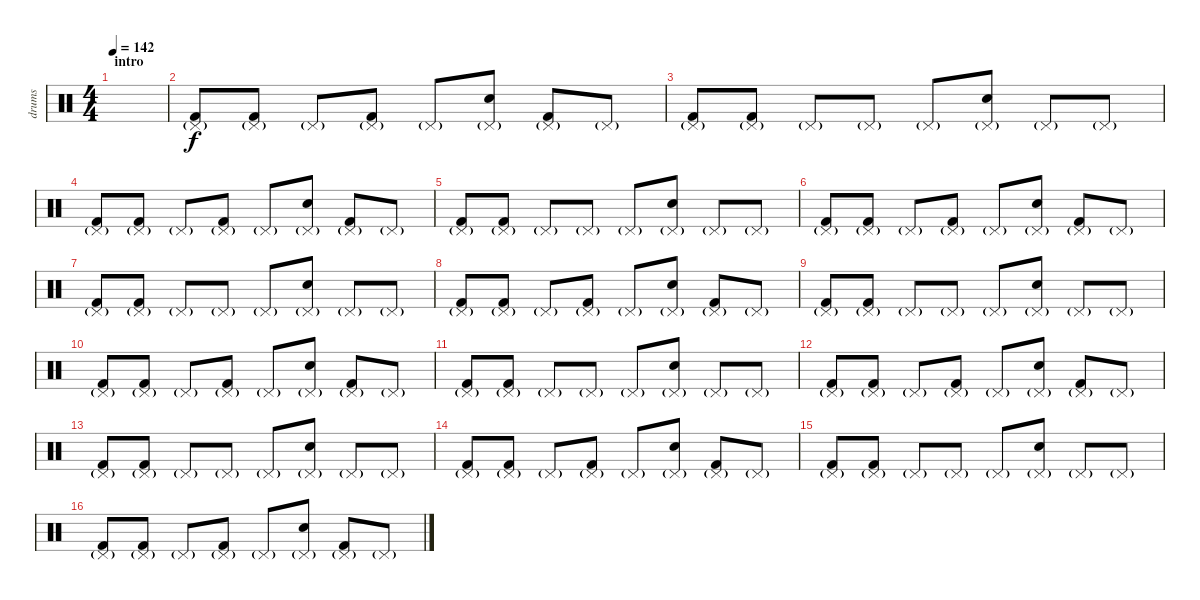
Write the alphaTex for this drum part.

\track ("drums" "drums") {instrument percussion}
\staff {score}
\articulation defaults
\ts (4 4)
\section ("" "intro")
\tempo 142
\clef neutral
\ks c
|
("Kick (hit) 2" "Pedal Hi-Hat (hit)"{g}).8 ("Kick (hit) 2" "Pedal Hi-Hat (hit)"{g}).8 "Pedal Hi-Hat (hit)"{g}.8 ("Kick (hit) 2" "Pedal Hi-Hat (hit)"{g}).8 "Pedal Hi-Hat (hit)"{g}.8 ("Snare (hit) 2" "Pedal Hi-Hat (hit)"{g}).8 ("Kick (hit) 2" "Pedal Hi-Hat (hit)"{g}).8 "Pedal Hi-Hat (hit)"{g}.8 |
("Kick (hit) 2" "Pedal Hi-Hat (hit)"{g}).8 ("Kick (hit) 2" "Pedal Hi-Hat (hit)"{g}).8 "Pedal Hi-Hat (hit)"{g}.8 "Pedal Hi-Hat (hit)"{g}.8 "Pedal Hi-Hat (hit)"{g}.8 ("Snare (hit) 2" "Pedal Hi-Hat (hit)"{g}).8 "Pedal Hi-Hat (hit)"{g}.8 "Pedal Hi-Hat (hit)"{g}.8 |
("Kick (hit) 2" "Pedal Hi-Hat (hit)"{g}).8 ("Kick (hit) 2" "Pedal Hi-Hat (hit)"{g}).8 "Pedal Hi-Hat (hit)"{g}.8 ("Kick (hit) 2" "Pedal Hi-Hat (hit)"{g}).8 "Pedal Hi-Hat (hit)"{g}.8 ("Snare (hit) 2" "Pedal Hi-Hat (hit)"{g}).8 ("Kick (hit) 2" "Pedal Hi-Hat (hit)"{g}).8 "Pedal Hi-Hat (hit)"{g}.8 |
("Kick (hit) 2" "Pedal Hi-Hat (hit)"{g}).8 ("Kick (hit) 2" "Pedal Hi-Hat (hit)"{g}).8 "Pedal Hi-Hat (hit)"{g}.8 "Pedal Hi-Hat (hit)"{g}.8 "Pedal Hi-Hat (hit)"{g}.8 ("Snare (hit) 2" "Pedal Hi-Hat (hit)"{g}).8 "Pedal Hi-Hat (hit)"{g}.8 "Pedal Hi-Hat (hit)"{g}.8 |
("Kick (hit) 2" "Pedal Hi-Hat (hit)"{g}).8 ("Kick (hit) 2" "Pedal Hi-Hat (hit)"{g}).8 "Pedal Hi-Hat (hit)"{g}.8 ("Kick (hit) 2" "Pedal Hi-Hat (hit)"{g}).8 "Pedal Hi-Hat (hit)"{g}.8 ("Snare (hit) 2" "Pedal Hi-Hat (hit)"{g}).8 ("Kick (hit) 2" "Pedal Hi-Hat (hit)"{g}).8 "Pedal Hi-Hat (hit)"{g}.8 |
("Kick (hit) 2" "Pedal Hi-Hat (hit)"{g}).8 ("Kick (hit) 2" "Pedal Hi-Hat (hit)"{g}).8 "Pedal Hi-Hat (hit)"{g}.8 "Pedal Hi-Hat (hit)"{g}.8 "Pedal Hi-Hat (hit)"{g}.8 ("Snare (hit) 2" "Pedal Hi-Hat (hit)"{g}).8 "Pedal Hi-Hat (hit)"{g}.8 "Pedal Hi-Hat (hit)"{g}.8 |
("Kick (hit) 2" "Pedal Hi-Hat (hit)"{g}).8 ("Kick (hit) 2" "Pedal Hi-Hat (hit)"{g}).8 "Pedal Hi-Hat (hit)"{g}.8 ("Kick (hit) 2" "Pedal Hi-Hat (hit)"{g}).8 "Pedal Hi-Hat (hit)"{g}.8 ("Snare (hit) 2" "Pedal Hi-Hat (hit)"{g}).8 ("Kick (hit) 2" "Pedal Hi-Hat (hit)"{g}).8 "Pedal Hi-Hat (hit)"{g}.8 |
("Kick (hit) 2" "Pedal Hi-Hat (hit)"{g}).8 ("Kick (hit) 2" "Pedal Hi-Hat (hit)"{g}).8 "Pedal Hi-Hat (hit)"{g}.8 "Pedal Hi-Hat (hit)"{g}.8 "Pedal Hi-Hat (hit)"{g}.8 ("Snare (hit) 2" "Pedal Hi-Hat (hit)"{g}).8 "Pedal Hi-Hat (hit)"{g}.8 "Pedal Hi-Hat (hit)"{g}.8 |
("Kick (hit) 2" "Pedal Hi-Hat (hit)"{g}).8 ("Kick (hit) 2" "Pedal Hi-Hat (hit)"{g}).8 "Pedal Hi-Hat (hit)"{g}.8 ("Kick (hit) 2" "Pedal Hi-Hat (hit)"{g}).8 "Pedal Hi-Hat (hit)"{g}.8 ("Snare (hit) 2" "Pedal Hi-Hat (hit)"{g}).8 ("Kick (hit) 2" "Pedal Hi-Hat (hit)"{g}).8 "Pedal Hi-Hat (hit)"{g}.8 |
("Kick (hit) 2" "Pedal Hi-Hat (hit)"{g}).8 ("Kick (hit) 2" "Pedal Hi-Hat (hit)"{g}).8 "Pedal Hi-Hat (hit)"{g}.8 "Pedal Hi-Hat (hit)"{g}.8 "Pedal Hi-Hat (hit)"{g}.8 ("Snare (hit) 2" "Pedal Hi-Hat (hit)"{g}).8 "Pedal Hi-Hat (hit)"{g}.8 "Pedal Hi-Hat (hit)"{g}.8 |
("Kick (hit) 2" "Pedal Hi-Hat (hit)"{g}).8 ("Kick (hit) 2" "Pedal Hi-Hat (hit)"{g}).8 "Pedal Hi-Hat (hit)"{g}.8 ("Kick (hit) 2" "Pedal Hi-Hat (hit)"{g}).8 "Pedal Hi-Hat (hit)"{g}.8 ("Snare (hit) 2" "Pedal Hi-Hat (hit)"{g}).8 ("Kick (hit) 2" "Pedal Hi-Hat (hit)"{g}).8 "Pedal Hi-Hat (hit)"{g}.8 |
("Kick (hit) 2" "Pedal Hi-Hat (hit)"{g}).8 ("Kick (hit) 2" "Pedal Hi-Hat (hit)"{g}).8 "Pedal Hi-Hat (hit)"{g}.8 "Pedal Hi-Hat (hit)"{g}.8 "Pedal Hi-Hat (hit)"{g}.8 ("Snare (hit) 2" "Pedal Hi-Hat (hit)"{g}).8 "Pedal Hi-Hat (hit)"{g}.8 "Pedal Hi-Hat (hit)"{g}.8 |
("Kick (hit) 2" "Pedal Hi-Hat (hit)"{g}).8 ("Kick (hit) 2" "Pedal Hi-Hat (hit)"{g}).8 "Pedal Hi-Hat (hit)"{g}.8 ("Kick (hit) 2" "Pedal Hi-Hat (hit)"{g}).8 "Pedal Hi-Hat (hit)"{g}.8 ("Snare (hit) 2" "Pedal Hi-Hat (hit)"{g}).8 ("Kick (hit) 2" "Pedal Hi-Hat (hit)"{g}).8 "Pedal Hi-Hat (hit)"{g}.8 |
("Kick (hit) 2" "Pedal Hi-Hat (hit)"{g}).8 ("Kick (hit) 2" "Pedal Hi-Hat (hit)"{g}).8 "Pedal Hi-Hat (hit)"{g}.8 "Pedal Hi-Hat (hit)"{g}.8 "Pedal Hi-Hat (hit)"{g}.8 ("Snare (hit) 2" "Pedal Hi-Hat (hit)"{g}).8 "Pedal Hi-Hat (hit)"{g}.8 "Pedal Hi-Hat (hit)"{g}.8 |
("Kick (hit) 2" "Pedal Hi-Hat (hit)"{g}).8 ("Kick (hit) 2" "Pedal Hi-Hat (hit)"{g}).8 "Pedal Hi-Hat (hit)"{g}.8 ("Kick (hit) 2" "Pedal Hi-Hat (hit)"{g}).8 "Pedal Hi-Hat (hit)"{g}.8 ("Snare (hit) 2" "Pedal Hi-Hat (hit)"{g}).8 ("Kick (hit) 2" "Pedal Hi-Hat (hit)"{g}).8 "Pedal Hi-Hat (hit)"{g}.8
